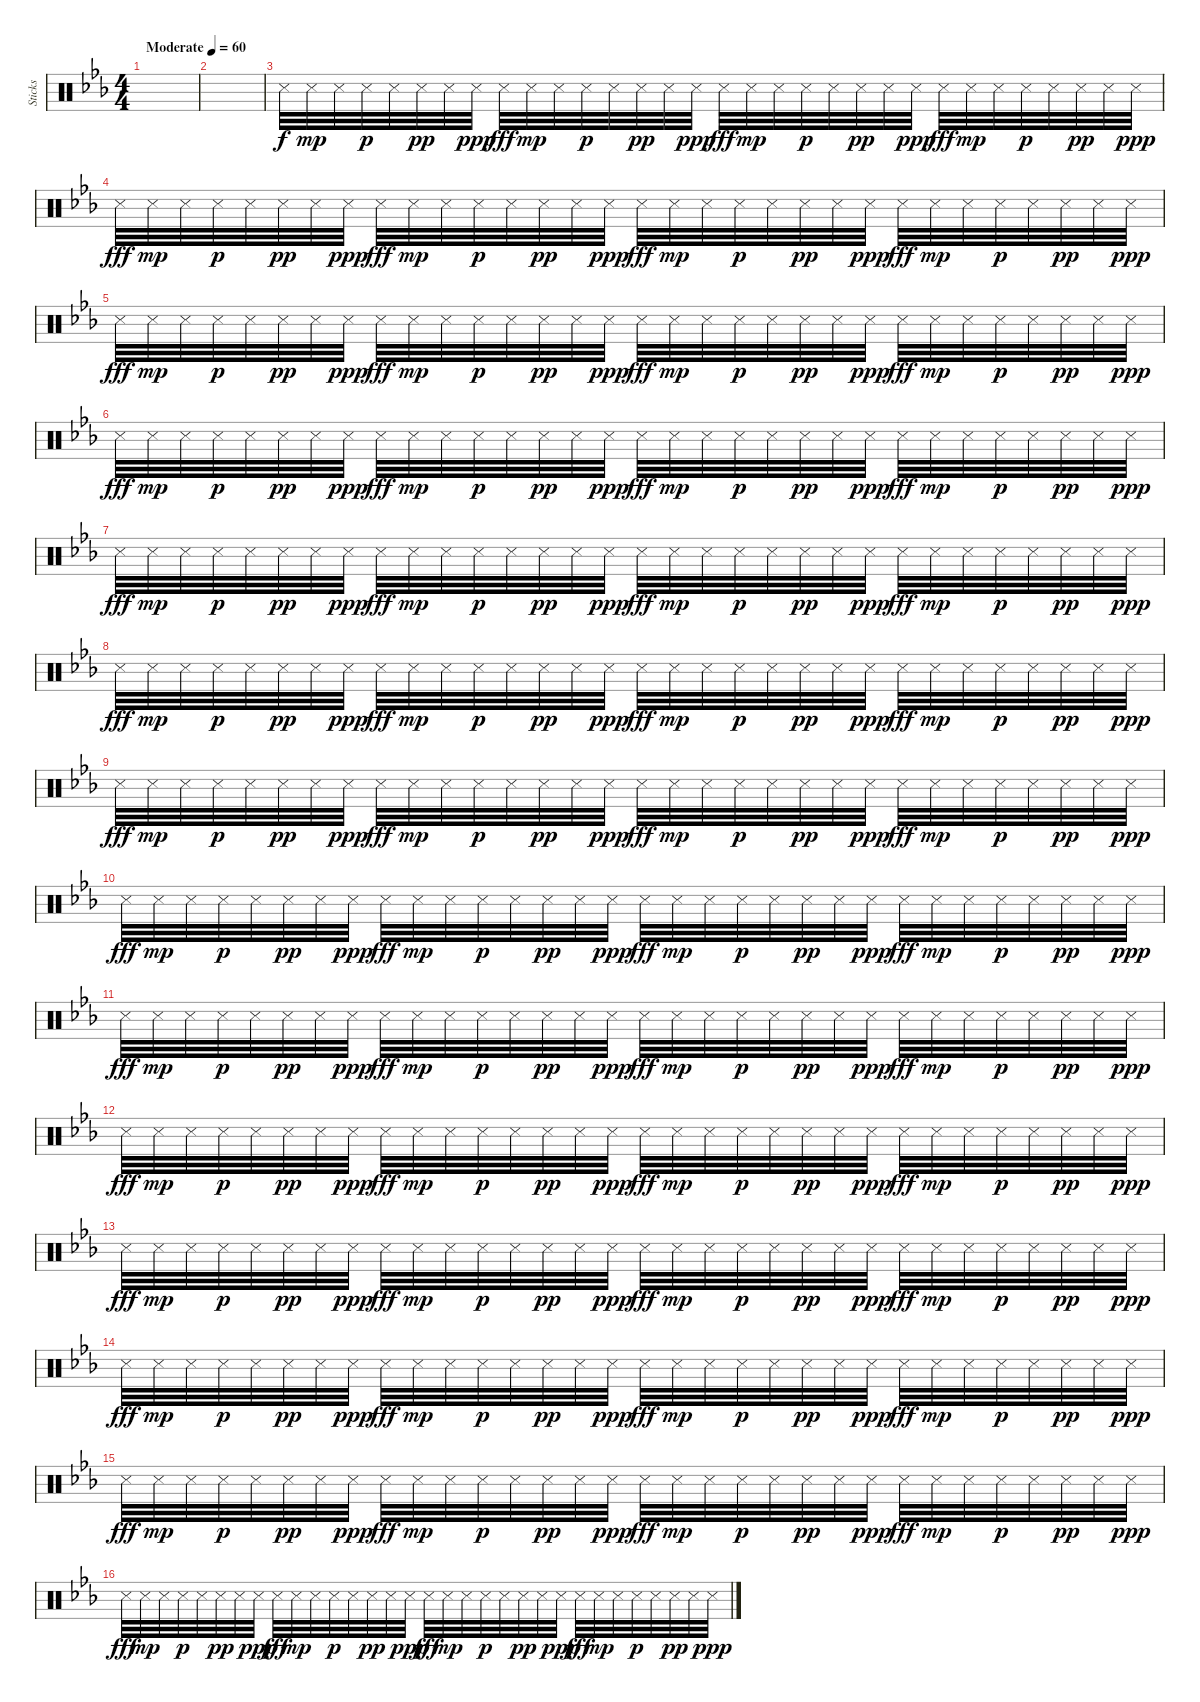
\track ("Sticks" "Sticks") {instrument percussion}
\staff {score}
\articulation defaults
\ts (4 4)
\tempo (60 "Moderate")
\clef neutral
\ks eb
|
|
"Snare (side stick) 3".32 "Snare (side stick) 3".32{dy mp} "Snare (side stick) 3".32 "Snare (side stick) 3".32{dy p} "Snare (side stick) 3".32 "Snare (side stick) 3".32{dy pp} "Snare (side stick) 3".32 "Snare (side stick) 3".32{dy ppp} "Snare (side stick) 3".32{dy fff} "Snare (side stick) 3".32{dy mp} "Snare (side stick) 3".32 "Snare (side stick) 3".32{dy p} "Snare (side stick) 3".32 "Snare (side stick) 3".32{dy pp} "Snare (side stick) 3".32 "Snare (side stick) 3".32{dy ppp} "Snare (side stick) 3".32{dy fff} "Snare (side stick) 3".32{dy mp} "Snare (side stick) 3".32 "Snare (side stick) 3".32{dy p} "Snare (side stick) 3".32 "Snare (side stick) 3".32{dy pp} "Snare (side stick) 3".32 "Snare (side stick) 3".32{dy ppp} "Snare (side stick) 3".32{dy fff} "Snare (side stick) 3".32{dy mp} "Snare (side stick) 3".32 "Snare (side stick) 3".32{dy p} "Snare (side stick) 3".32 "Snare (side stick) 3".32{dy pp} "Snare (side stick) 3".32 "Snare (side stick) 3".32{dy ppp} |
"Snare (side stick) 3".32{dy fff} "Snare (side stick) 3".32{dy mp} "Snare (side stick) 3".32 "Snare (side stick) 3".32{dy p} "Snare (side stick) 3".32 "Snare (side stick) 3".32{dy pp} "Snare (side stick) 3".32 "Snare (side stick) 3".32{dy ppp} "Snare (side stick) 3".32{dy fff} "Snare (side stick) 3".32{dy mp} "Snare (side stick) 3".32 "Snare (side stick) 3".32{dy p} "Snare (side stick) 3".32 "Snare (side stick) 3".32{dy pp} "Snare (side stick) 3".32 "Snare (side stick) 3".32{dy ppp} "Snare (side stick) 3".32{dy fff} "Snare (side stick) 3".32{dy mp} "Snare (side stick) 3".32 "Snare (side stick) 3".32{dy p} "Snare (side stick) 3".32 "Snare (side stick) 3".32{dy pp} "Snare (side stick) 3".32 "Snare (side stick) 3".32{dy ppp} "Snare (side stick) 3".32{dy fff} "Snare (side stick) 3".32{dy mp} "Snare (side stick) 3".32 "Snare (side stick) 3".32{dy p} "Snare (side stick) 3".32 "Snare (side stick) 3".32{dy pp} "Snare (side stick) 3".32 "Snare (side stick) 3".32{dy ppp} |
"Snare (side stick) 3".32{dy fff} "Snare (side stick) 3".32{dy mp} "Snare (side stick) 3".32 "Snare (side stick) 3".32{dy p} "Snare (side stick) 3".32 "Snare (side stick) 3".32{dy pp} "Snare (side stick) 3".32 "Snare (side stick) 3".32{dy ppp} "Snare (side stick) 3".32{dy fff} "Snare (side stick) 3".32{dy mp} "Snare (side stick) 3".32 "Snare (side stick) 3".32{dy p} "Snare (side stick) 3".32 "Snare (side stick) 3".32{dy pp} "Snare (side stick) 3".32 "Snare (side stick) 3".32{dy ppp} "Snare (side stick) 3".32{dy fff} "Snare (side stick) 3".32{dy mp} "Snare (side stick) 3".32 "Snare (side stick) 3".32{dy p} "Snare (side stick) 3".32 "Snare (side stick) 3".32{dy pp} "Snare (side stick) 3".32 "Snare (side stick) 3".32{dy ppp} "Snare (side stick) 3".32{dy fff} "Snare (side stick) 3".32{dy mp} "Snare (side stick) 3".32 "Snare (side stick) 3".32{dy p} "Snare (side stick) 3".32 "Snare (side stick) 3".32{dy pp} "Snare (side stick) 3".32 "Snare (side stick) 3".32{dy ppp} |
"Snare (side stick) 3".32{dy fff} "Snare (side stick) 3".32{dy mp} "Snare (side stick) 3".32 "Snare (side stick) 3".32{dy p} "Snare (side stick) 3".32 "Snare (side stick) 3".32{dy pp} "Snare (side stick) 3".32 "Snare (side stick) 3".32{dy ppp} "Snare (side stick) 3".32{dy fff} "Snare (side stick) 3".32{dy mp} "Snare (side stick) 3".32 "Snare (side stick) 3".32{dy p} "Snare (side stick) 3".32 "Snare (side stick) 3".32{dy pp} "Snare (side stick) 3".32 "Snare (side stick) 3".32{dy ppp} "Snare (side stick) 3".32{dy fff} "Snare (side stick) 3".32{dy mp} "Snare (side stick) 3".32 "Snare (side stick) 3".32{dy p} "Snare (side stick) 3".32 "Snare (side stick) 3".32{dy pp} "Snare (side stick) 3".32 "Snare (side stick) 3".32{dy ppp} "Snare (side stick) 3".32{dy fff} "Snare (side stick) 3".32{dy mp} "Snare (side stick) 3".32 "Snare (side stick) 3".32{dy p} "Snare (side stick) 3".32 "Snare (side stick) 3".32{dy pp} "Snare (side stick) 3".32 "Snare (side stick) 3".32{dy ppp} |
"Snare (side stick) 3".32{dy fff} "Snare (side stick) 3".32{dy mp} "Snare (side stick) 3".32 "Snare (side stick) 3".32{dy p} "Snare (side stick) 3".32 "Snare (side stick) 3".32{dy pp} "Snare (side stick) 3".32 "Snare (side stick) 3".32{dy ppp} "Snare (side stick) 3".32{dy fff} "Snare (side stick) 3".32{dy mp} "Snare (side stick) 3".32 "Snare (side stick) 3".32{dy p} "Snare (side stick) 3".32 "Snare (side stick) 3".32{dy pp} "Snare (side stick) 3".32 "Snare (side stick) 3".32{dy ppp} "Snare (side stick) 3".32{dy fff} "Snare (side stick) 3".32{dy mp} "Snare (side stick) 3".32 "Snare (side stick) 3".32{dy p} "Snare (side stick) 3".32 "Snare (side stick) 3".32{dy pp} "Snare (side stick) 3".32 "Snare (side stick) 3".32{dy ppp} "Snare (side stick) 3".32{dy fff} "Snare (side stick) 3".32{dy mp} "Snare (side stick) 3".32 "Snare (side stick) 3".32{dy p} "Snare (side stick) 3".32 "Snare (side stick) 3".32{dy pp} "Snare (side stick) 3".32 "Snare (side stick) 3".32{dy ppp} |
"Snare (side stick) 3".32{dy fff} "Snare (side stick) 3".32{dy mp} "Snare (side stick) 3".32 "Snare (side stick) 3".32{dy p} "Snare (side stick) 3".32 "Snare (side stick) 3".32{dy pp} "Snare (side stick) 3".32 "Snare (side stick) 3".32{dy ppp} "Snare (side stick) 3".32{dy fff} "Snare (side stick) 3".32{dy mp} "Snare (side stick) 3".32 "Snare (side stick) 3".32{dy p} "Snare (side stick) 3".32 "Snare (side stick) 3".32{dy pp} "Snare (side stick) 3".32 "Snare (side stick) 3".32{dy ppp} "Snare (side stick) 3".32{dy fff} "Snare (side stick) 3".32{dy mp} "Snare (side stick) 3".32 "Snare (side stick) 3".32{dy p} "Snare (side stick) 3".32 "Snare (side stick) 3".32{dy pp} "Snare (side stick) 3".32 "Snare (side stick) 3".32{dy ppp} "Snare (side stick) 3".32{dy fff} "Snare (side stick) 3".32{dy mp} "Snare (side stick) 3".32 "Snare (side stick) 3".32{dy p} "Snare (side stick) 3".32 "Snare (side stick) 3".32{dy pp} "Snare (side stick) 3".32 "Snare (side stick) 3".32{dy ppp} |
"Snare (side stick) 3".32{dy fff} "Snare (side stick) 3".32{dy mp} "Snare (side stick) 3".32 "Snare (side stick) 3".32{dy p} "Snare (side stick) 3".32 "Snare (side stick) 3".32{dy pp} "Snare (side stick) 3".32 "Snare (side stick) 3".32{dy ppp} "Snare (side stick) 3".32{dy fff} "Snare (side stick) 3".32{dy mp} "Snare (side stick) 3".32 "Snare (side stick) 3".32{dy p} "Snare (side stick) 3".32 "Snare (side stick) 3".32{dy pp} "Snare (side stick) 3".32 "Snare (side stick) 3".32{dy ppp} "Snare (side stick) 3".32{dy fff} "Snare (side stick) 3".32{dy mp} "Snare (side stick) 3".32 "Snare (side stick) 3".32{dy p} "Snare (side stick) 3".32 "Snare (side stick) 3".32{dy pp} "Snare (side stick) 3".32 "Snare (side stick) 3".32{dy ppp} "Snare (side stick) 3".32{dy fff} "Snare (side stick) 3".32{dy mp} "Snare (side stick) 3".32 "Snare (side stick) 3".32{dy p} "Snare (side stick) 3".32 "Snare (side stick) 3".32{dy pp} "Snare (side stick) 3".32 "Snare (side stick) 3".32{dy ppp} |
"Snare (side stick) 3".32{dy fff} "Snare (side stick) 3".32{dy mp} "Snare (side stick) 3".32 "Snare (side stick) 3".32{dy p} "Snare (side stick) 3".32 "Snare (side stick) 3".32{dy pp} "Snare (side stick) 3".32 "Snare (side stick) 3".32{dy ppp} "Snare (side stick) 3".32{dy fff} "Snare (side stick) 3".32{dy mp} "Snare (side stick) 3".32 "Snare (side stick) 3".32{dy p} "Snare (side stick) 3".32 "Snare (side stick) 3".32{dy pp} "Snare (side stick) 3".32 "Snare (side stick) 3".32{dy ppp} "Snare (side stick) 3".32{dy fff} "Snare (side stick) 3".32{dy mp} "Snare (side stick) 3".32 "Snare (side stick) 3".32{dy p} "Snare (side stick) 3".32 "Snare (side stick) 3".32{dy pp} "Snare (side stick) 3".32 "Snare (side stick) 3".32{dy ppp} "Snare (side stick) 3".32{dy fff} "Snare (side stick) 3".32{dy mp} "Snare (side stick) 3".32 "Snare (side stick) 3".32{dy p} "Snare (side stick) 3".32 "Snare (side stick) 3".32{dy pp} "Snare (side stick) 3".32 "Snare (side stick) 3".32{dy ppp} |
"Snare (side stick) 3".32{dy fff} "Snare (side stick) 3".32{dy mp} "Snare (side stick) 3".32 "Snare (side stick) 3".32{dy p} "Snare (side stick) 3".32 "Snare (side stick) 3".32{dy pp} "Snare (side stick) 3".32 "Snare (side stick) 3".32{dy ppp} "Snare (side stick) 3".32{dy fff} "Snare (side stick) 3".32{dy mp} "Snare (side stick) 3".32 "Snare (side stick) 3".32{dy p} "Snare (side stick) 3".32 "Snare (side stick) 3".32{dy pp} "Snare (side stick) 3".32 "Snare (side stick) 3".32{dy ppp} "Snare (side stick) 3".32{dy fff} "Snare (side stick) 3".32{dy mp} "Snare (side stick) 3".32 "Snare (side stick) 3".32{dy p} "Snare (side stick) 3".32 "Snare (side stick) 3".32{dy pp} "Snare (side stick) 3".32 "Snare (side stick) 3".32{dy ppp} "Snare (side stick) 3".32{dy fff} "Snare (side stick) 3".32{dy mp} "Snare (side stick) 3".32 "Snare (side stick) 3".32{dy p} "Snare (side stick) 3".32 "Snare (side stick) 3".32{dy pp} "Snare (side stick) 3".32 "Snare (side stick) 3".32{dy ppp} |
"Snare (side stick) 3".32{dy fff} "Snare (side stick) 3".32{dy mp} "Snare (side stick) 3".32 "Snare (side stick) 3".32{dy p} "Snare (side stick) 3".32 "Snare (side stick) 3".32{dy pp} "Snare (side stick) 3".32 "Snare (side stick) 3".32{dy ppp} "Snare (side stick) 3".32{dy fff} "Snare (side stick) 3".32{dy mp} "Snare (side stick) 3".32 "Snare (side stick) 3".32{dy p} "Snare (side stick) 3".32 "Snare (side stick) 3".32{dy pp} "Snare (side stick) 3".32 "Snare (side stick) 3".32{dy ppp} "Snare (side stick) 3".32{dy fff} "Snare (side stick) 3".32{dy mp} "Snare (side stick) 3".32 "Snare (side stick) 3".32{dy p} "Snare (side stick) 3".32 "Snare (side stick) 3".32{dy pp} "Snare (side stick) 3".32 "Snare (side stick) 3".32{dy ppp} "Snare (side stick) 3".32{dy fff} "Snare (side stick) 3".32{dy mp} "Snare (side stick) 3".32 "Snare (side stick) 3".32{dy p} "Snare (side stick) 3".32 "Snare (side stick) 3".32{dy pp} "Snare (side stick) 3".32 "Snare (side stick) 3".32{dy ppp} |
"Snare (side stick) 3".32{dy fff} "Snare (side stick) 3".32{dy mp} "Snare (side stick) 3".32 "Snare (side stick) 3".32{dy p} "Snare (side stick) 3".32 "Snare (side stick) 3".32{dy pp} "Snare (side stick) 3".32 "Snare (side stick) 3".32{dy ppp} "Snare (side stick) 3".32{dy fff} "Snare (side stick) 3".32{dy mp} "Snare (side stick) 3".32 "Snare (side stick) 3".32{dy p} "Snare (side stick) 3".32 "Snare (side stick) 3".32{dy pp} "Snare (side stick) 3".32 "Snare (side stick) 3".32{dy ppp} "Snare (side stick) 3".32{dy fff} "Snare (side stick) 3".32{dy mp} "Snare (side stick) 3".32 "Snare (side stick) 3".32{dy p} "Snare (side stick) 3".32 "Snare (side stick) 3".32{dy pp} "Snare (side stick) 3".32 "Snare (side stick) 3".32{dy ppp} "Snare (side stick) 3".32{dy fff} "Snare (side stick) 3".32{dy mp} "Snare (side stick) 3".32 "Snare (side stick) 3".32{dy p} "Snare (side stick) 3".32 "Snare (side stick) 3".32{dy pp} "Snare (side stick) 3".32 "Snare (side stick) 3".32{dy ppp} |
"Snare (side stick) 3".32{dy fff} "Snare (side stick) 3".32{dy mp} "Snare (side stick) 3".32 "Snare (side stick) 3".32{dy p} "Snare (side stick) 3".32 "Snare (side stick) 3".32{dy pp} "Snare (side stick) 3".32 "Snare (side stick) 3".32{dy ppp} "Snare (side stick) 3".32{dy fff} "Snare (side stick) 3".32{dy mp} "Snare (side stick) 3".32 "Snare (side stick) 3".32{dy p} "Snare (side stick) 3".32 "Snare (side stick) 3".32{dy pp} "Snare (side stick) 3".32 "Snare (side stick) 3".32{dy ppp} "Snare (side stick) 3".32{dy fff} "Snare (side stick) 3".32{dy mp} "Snare (side stick) 3".32 "Snare (side stick) 3".32{dy p} "Snare (side stick) 3".32 "Snare (side stick) 3".32{dy pp} "Snare (side stick) 3".32 "Snare (side stick) 3".32{dy ppp} "Snare (side stick) 3".32{dy fff} "Snare (side stick) 3".32{dy mp} "Snare (side stick) 3".32 "Snare (side stick) 3".32{dy p} "Snare (side stick) 3".32 "Snare (side stick) 3".32{dy pp} "Snare (side stick) 3".32 "Snare (side stick) 3".32{dy ppp} |
"Snare (side stick) 3".32{dy fff} "Snare (side stick) 3".32{dy mp} "Snare (side stick) 3".32 "Snare (side stick) 3".32{dy p} "Snare (side stick) 3".32 "Snare (side stick) 3".32{dy pp} "Snare (side stick) 3".32 "Snare (side stick) 3".32{dy ppp} "Snare (side stick) 3".32{dy fff} "Snare (side stick) 3".32{dy mp} "Snare (side stick) 3".32 "Snare (side stick) 3".32{dy p} "Snare (side stick) 3".32 "Snare (side stick) 3".32{dy pp} "Snare (side stick) 3".32 "Snare (side stick) 3".32{dy ppp} "Snare (side stick) 3".32{dy fff} "Snare (side stick) 3".32{dy mp} "Snare (side stick) 3".32 "Snare (side stick) 3".32{dy p} "Snare (side stick) 3".32 "Snare (side stick) 3".32{dy pp} "Snare (side stick) 3".32 "Snare (side stick) 3".32{dy ppp} "Snare (side stick) 3".32{dy fff} "Snare (side stick) 3".32{dy mp} "Snare (side stick) 3".32 "Snare (side stick) 3".32{dy p} "Snare (side stick) 3".32 "Snare (side stick) 3".32{dy pp} "Snare (side stick) 3".32 "Snare (side stick) 3".32{dy ppp} |
"Snare (side stick) 3".32{dy fff} "Snare (side stick) 3".32{dy mp} "Snare (side stick) 3".32 "Snare (side stick) 3".32{dy p} "Snare (side stick) 3".32 "Snare (side stick) 3".32{dy pp} "Snare (side stick) 3".32 "Snare (side stick) 3".32{dy ppp} "Snare (side stick) 3".32{dy fff} "Snare (side stick) 3".32{dy mp} "Snare (side stick) 3".32 "Snare (side stick) 3".32{dy p} "Snare (side stick) 3".32 "Snare (side stick) 3".32{dy pp} "Snare (side stick) 3".32 "Snare (side stick) 3".32{dy ppp} "Snare (side stick) 3".32{dy fff} "Snare (side stick) 3".32{dy mp} "Snare (side stick) 3".32 "Snare (side stick) 3".32{dy p} "Snare (side stick) 3".32 "Snare (side stick) 3".32{dy pp} "Snare (side stick) 3".32 "Snare (side stick) 3".32{dy ppp} "Snare (side stick) 3".32{dy fff} "Snare (side stick) 3".32{dy mp} "Snare (side stick) 3".32 "Snare (side stick) 3".32{dy p} "Snare (side stick) 3".32 "Snare (side stick) 3".32{dy pp} "Snare (side stick) 3".32 "Snare (side stick) 3".32{dy ppp}
